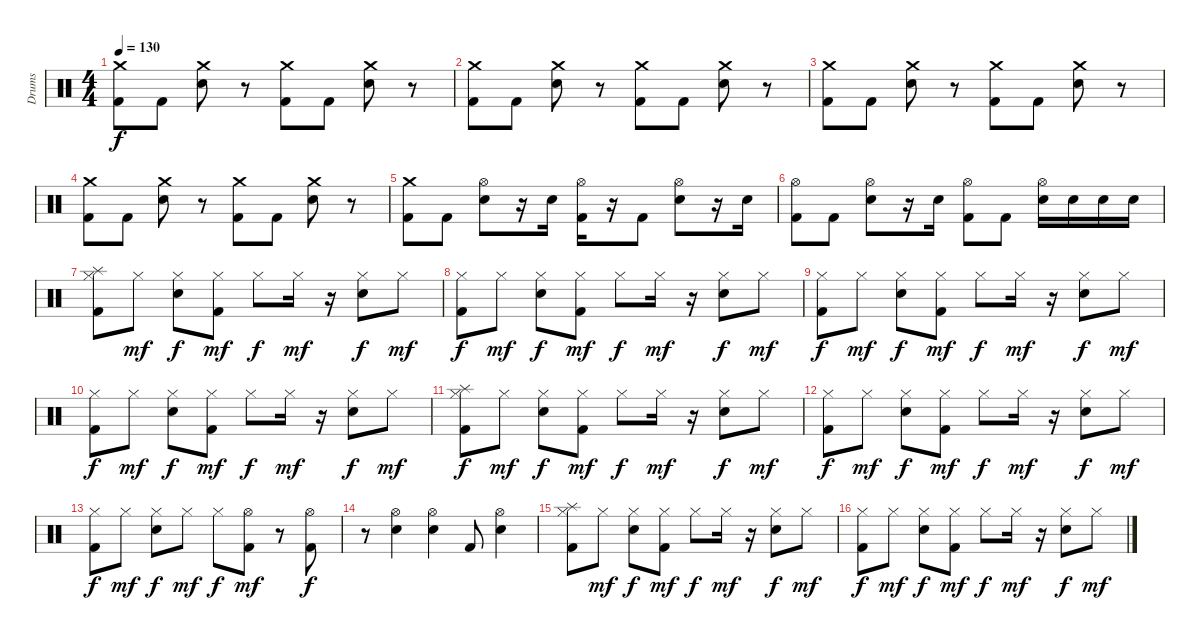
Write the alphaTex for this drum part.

\track ("Drums" "Drums") {instrument percussion}
\staff {score}
\articulation defaults
\ts (4 4)
\tempo 130
\clef neutral
\ks c
("Crash medium (hit)" "Kick (hit) 2").8{dy f} "Kick (hit) 2".8 ("Crash medium (hit)" "Snare (hit) 2").8 r.8 ("Crash medium (hit)" "Kick (hit) 2").8 "Kick (hit) 2".8 ("Crash medium (hit)" "Snare (hit) 2").8 r.8 |
("Crash medium (hit)" "Kick (hit) 2").8 "Kick (hit) 2".8 ("Crash medium (hit)" "Snare (hit) 2").8 r.8 ("Crash medium (hit)" "Kick (hit) 2").8 "Kick (hit) 2".8 ("Crash medium (hit)" "Snare (hit) 2").8 r.8 |
("Crash medium (hit)" "Kick (hit) 2").8 "Kick (hit) 2".8 ("Crash medium (hit)" "Snare (hit) 2").8 r.8 ("Crash medium (hit)" "Kick (hit) 2").8 "Kick (hit) 2".8 ("Crash medium (hit)" "Snare (hit) 2").8 r.8 |
("Crash medium (hit)" "Kick (hit) 2").8 "Kick (hit) 2".8 ("Crash medium (hit)" "Snare (hit) 2").8 r.8 ("Crash medium (hit)" "Kick (hit) 2").8 "Kick (hit) 2".8 ("Crash medium (hit)" "Snare (hit) 2").8 r.8 |
("Crash medium (hit)" "Kick (hit) 2").8{volume 12} "Kick (hit) 2".8 ("Hi-Hat (open)" "Snare (hit) 2").8 r.16 "Snare (hit) 2".16 ("Hi-Hat (open)" "Kick (hit) 2").16 r.16 "Kick (hit) 2".8 ("Hi-Hat (open)" "Snare (hit) 2").8 r.16 "Snare (hit) 2".16 |
("Hi-Hat (open)" "Kick (hit) 2").8 "Kick (hit) 2".8 ("Hi-Hat (open)" "Snare (hit) 2").8 r.16 "Snare (hit) 2".16 ("Hi-Hat (open)" "Kick (hit) 2").8 "Kick (hit) 2".8 ("Hi-Hat (open)" "Snare (hit) 2").16 "Snare (hit) 2".16 "Snare (hit) 2".16 "Snare (hit) 2".16 |
("Hi-Hat (closed)" "Splash (hit)" "Kick (hit) 2").8 "Hi-Hat (closed)".8{dy mf} ("Hi-Hat (closed)" "Snare (hit) 2").8{dy f} ("Hi-Hat (closed)" "Kick (hit) 2").8{dy mf} "Hi-Hat (closed)".8{dy f} "Hi-Hat (closed)".16{dy mf} r.16 ("Hi-Hat (closed)" "Snare (hit) 2").8{dy f} "Hi-Hat (closed)".8{dy mf} |
("Hi-Hat (closed)" "Kick (hit) 2").8{dy f} "Hi-Hat (closed)".8{dy mf} ("Hi-Hat (closed)" "Snare (hit) 2").8{dy f} ("Hi-Hat (closed)" "Kick (hit) 2").8{dy mf} "Hi-Hat (closed)".8{dy f} "Hi-Hat (closed)".16{dy mf} r.16 ("Hi-Hat (closed)" "Snare (hit) 2").8{dy f} "Hi-Hat (closed)".8{dy mf} |
("Hi-Hat (closed)" "Kick (hit) 2").8{dy f} "Hi-Hat (closed)".8{dy mf} ("Hi-Hat (closed)" "Snare (hit) 2").8{dy f} ("Hi-Hat (closed)" "Kick (hit) 2").8{dy mf} "Hi-Hat (closed)".8{dy f} "Hi-Hat (closed)".16{dy mf} r.16 ("Hi-Hat (closed)" "Snare (hit) 2").8{dy f} "Hi-Hat (closed)".8{dy mf} |
("Hi-Hat (closed)" "Kick (hit) 2").8{dy f} "Hi-Hat (closed)".8{dy mf} ("Hi-Hat (closed)" "Snare (hit) 2").8{dy f} ("Hi-Hat (closed)" "Kick (hit) 2").8{dy mf} "Hi-Hat (closed)".8{dy f} "Hi-Hat (closed)".16{dy mf} r.16 ("Hi-Hat (closed)" "Snare (hit) 2").8{dy f} "Hi-Hat (closed)".8{dy mf} |
("Hi-Hat (closed)" "Splash (hit)" "Kick (hit) 2").8{dy f} "Hi-Hat (closed)".8{dy mf} ("Hi-Hat (closed)" "Snare (hit) 2").8{dy f} ("Hi-Hat (closed)" "Kick (hit) 2").8{dy mf} "Hi-Hat (closed)".8{dy f} "Hi-Hat (closed)".16{dy mf} r.16 ("Hi-Hat (closed)" "Snare (hit) 2").8{dy f} "Hi-Hat (closed)".8{dy mf} |
("Hi-Hat (closed)" "Kick (hit) 2").8{dy f} "Hi-Hat (closed)".8{dy mf} ("Hi-Hat (closed)" "Snare (hit) 2").8{dy f} ("Hi-Hat (closed)" "Kick (hit) 2").8{dy mf} "Hi-Hat (closed)".8{dy f} "Hi-Hat (closed)".16{dy mf} r.16 ("Hi-Hat (closed)" "Snare (hit) 2").8{dy f} "Hi-Hat (closed)".8{dy mf} |
("Hi-Hat (closed)" "Kick (hit) 2").8{dy f} "Hi-Hat (closed)".8{dy mf} ("Hi-Hat (closed)" "Snare (hit) 2").8{dy f} "Hi-Hat (closed)".8{dy mf} "Hi-Hat (closed)".8{dy f} ("Hi-Hat (open)" "Kick (hit) 2").8{dy mf} r.8 ("Hi-Hat (open)" "Kick (hit) 2").8{dy f} |
r.8 ("Hi-Hat (open)" "Snare (hit) 2").4 ("Hi-Hat (open)" "Snare (hit) 2").4 "Kick (hit) 2".8 ("Hi-Hat (open)" "Snare (hit) 2").4 |
("Hi-Hat (closed)" "Splash (hit)" "Kick (hit) 2").8 "Hi-Hat (closed)".8{dy mf} ("Hi-Hat (closed)" "Snare (hit) 2").8{dy f} ("Hi-Hat (closed)" "Kick (hit) 2").8{dy mf} "Hi-Hat (closed)".8{dy f} "Hi-Hat (closed)".16{dy mf} r.16 ("Hi-Hat (closed)" "Snare (hit) 2").8{dy f} "Hi-Hat (closed)".8{dy mf} |
("Hi-Hat (closed)" "Kick (hit) 2").8{dy f} "Hi-Hat (closed)".8{dy mf} ("Hi-Hat (closed)" "Snare (hit) 2").8{dy f} ("Hi-Hat (closed)" "Kick (hit) 2").8{dy mf} "Hi-Hat (closed)".8{dy f} "Hi-Hat (closed)".16{dy mf} r.16 ("Hi-Hat (closed)" "Snare (hit) 2").8{dy f} "Hi-Hat (closed)".8{dy mf}
